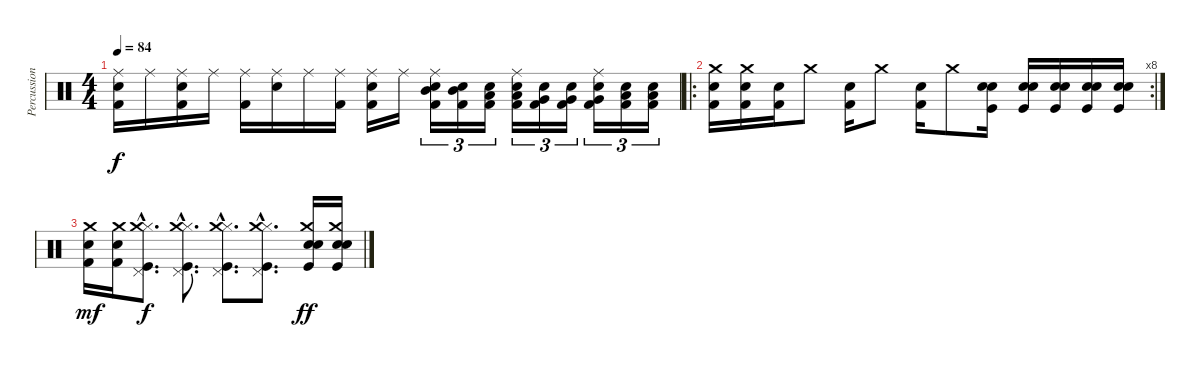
\track ("Percussions" "Percussion") {instrument percussion}
\staff {score}
\articulation defaults
\ts (4 4)
\tempo 84
\clef neutral
\ks c
("Ride (middle)" "Snare (hit) 2" "Kick (hit) 2").16{dy f} "Ride (middle)".16 ("Ride (middle)" "Snare (hit) 2" "Kick (hit) 2").16 "Ride (middle)".16 ("Ride (middle)" "Kick (hit) 2").16 ("Ride (middle)" "Snare (hit) 2").16 "Ride (middle)".16 ("Ride (middle)" "Kick (hit) 2").16 ("Ride (middle)" "Snare (hit) 2" "Kick (hit) 2").16 "Ride (middle)".16 ("Ride (middle)" "Snare (hit) 2" "Mid Tom (hit)" "Kick (hit) 2").16{tu (3 2)} ("Snare (hit) 2" "Mid Tom (hit)" "Kick (hit) 2").16{tu (3 2)} ("Snare (hit) 2" "Low Tom (hit)" "Kick (hit) 2").16{tu (3 2)} ("Ride (middle)" "Snare (hit) 2" "Low Tom (hit)" "Kick (hit) 2").16{tu (3 2)} ("Snare (hit) 2" "Very Low Tom (hit)" "Kick (hit) 2").16{tu (3 2)} ("Electric Snare (hit)" "Very Low Tom (hit)" "Kick (hit) 2").16{tu (3 2)} ("Ride (middle)" "Electric Snare (hit)" "Very Low Tom (hit)" "Kick (hit) 2").16{tu (3 2)} ("Electric Snare (hit)" "Low Floor Tom (hit)" "Kick (hit) 2").16{tu (3 2)} ("Electric Snare (hit)" "Low Floor Tom (hit)" "Kick (hit) 2").16{tu (3 2)} |
\ro
\rc 8
("Crash medium (hit)" "Electric Snare (hit)" "Kick (hit) 2").16 ("Crash medium (hit)" "Electric Snare (hit)" "Kick (hit) 2").16 ("Snare (hit) 2" "Kick (hit) 2").16 "Crash medium (hit)".8 ("Kick (hit) 2" "Snare (hit) 2").16 "Crash medium (hit)".8 ("Snare (hit) 2" "Kick (hit) 2").16 "Crash medium (hit)".8 ("Snare (hit) 2" "Electric Snare (hit)" "Kick (hit)").16 ("Snare (hit) 2" "Electric Snare (hit)" "Kick (hit)").16 ("Snare (hit) 2" "Electric Snare (hit)" "Kick (hit)").16 ("Snare (hit) 2" "Electric Snare (hit)" "Kick (hit)").16 ("Snare (hit) 2" "Electric Snare (hit)" "Kick (hit)").16 |
("Crash medium (hit)" "Electric Snare (hit)" "Kick (hit) 2").16{dy mf} ("Crash medium (hit)" "Electric Snare (hit)" "Kick (hit) 2").16 ("Hi-Hat (closed)"{hac} "Pedal Hi-Hat (hit)"{hac} "Crash medium (hit)"{hac} "Kick (hit)"{hac}).8{d dy f} ("Hi-Hat (closed)"{hac} "Pedal Hi-Hat (hit)"{hac} "Crash medium (hit)"{hac} "Kick (hit)"{hac}).8{d} ("Hi-Hat (closed)"{hac} "Pedal Hi-Hat (hit)"{hac} "Crash medium (hit)"{hac} "Kick (hit)"{hac}).8{d} ("Hi-Hat (closed)"{hac} "Pedal Hi-Hat (hit)"{hac} "Crash medium (hit)"{hac} "Kick (hit)"{hac}).8{d} ("Crash medium (hit)" "Snare (hit) 2" "Electric Snare (hit)" "Kick (hit)").16{dy ff} ("Crash medium (hit)" "Snare (hit) 2" "Electric Snare (hit)" "Kick (hit)").16
